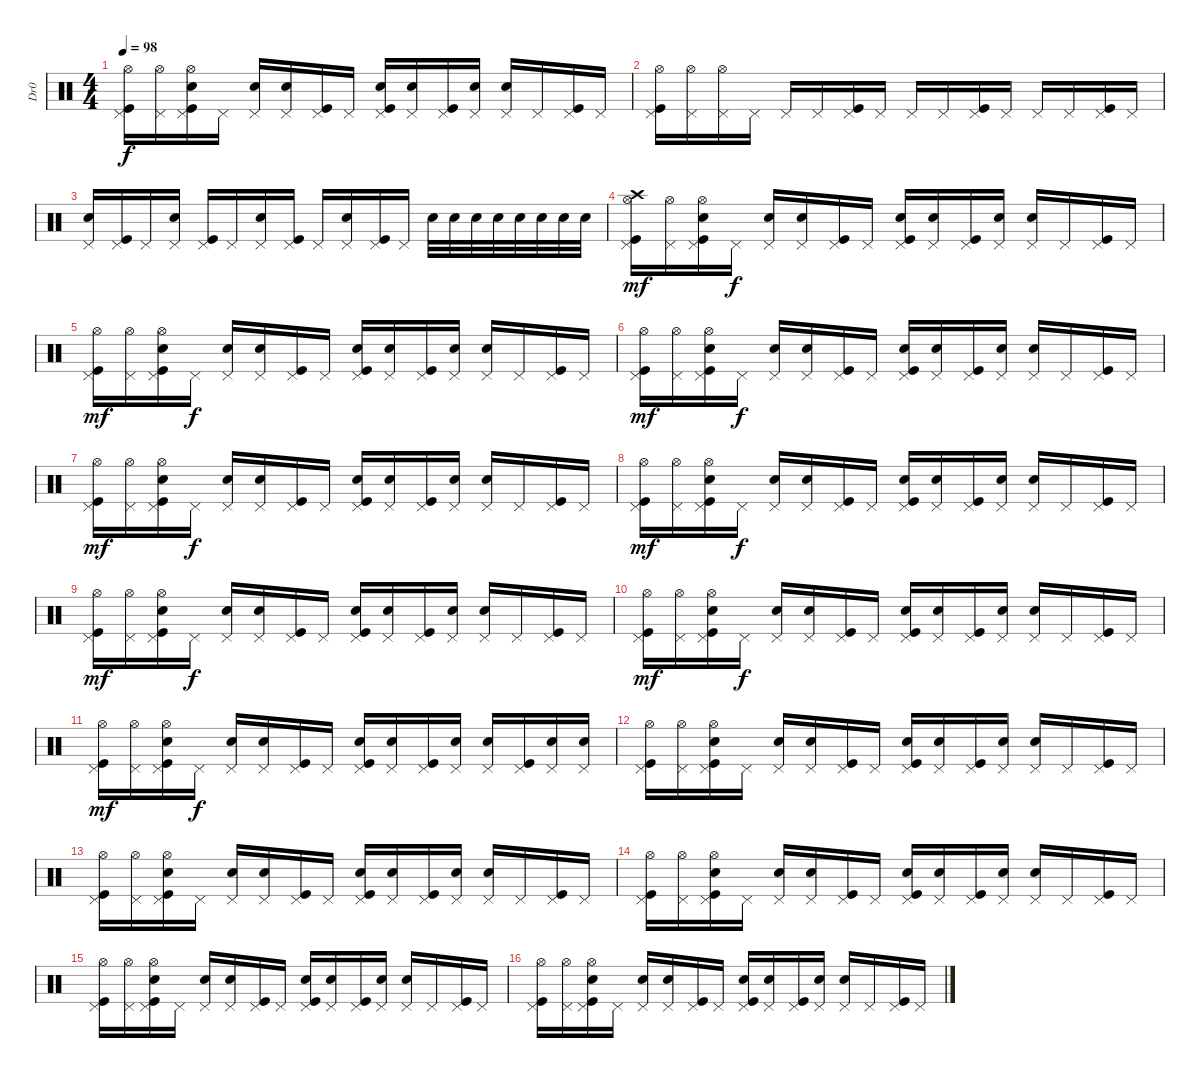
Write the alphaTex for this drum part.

\track ("Dr0" "Dr0") {instrument percussion}
\staff {score}
\articulation defaults
\ts (4 4)
\tempo 98
\clef neutral
\ks c
("Kick (hit)" "Pedal Hi-Hat (hit)" "Hi-Hat (open)").16{dy f} ("Pedal Hi-Hat (hit)" "Hi-Hat (open)").16 ("Kick (hit)" "Pedal Hi-Hat (hit)" "Hand Clap (hit)" "Hi-Hat (open)").16 "Pedal Hi-Hat (hit)".16 ("Pedal Hi-Hat (hit)" "Snare (hit) 2").16 ("Pedal Hi-Hat (hit)" "Hand Clap (hit)").16 ("Kick (hit)" "Pedal Hi-Hat (hit)").16 "Pedal Hi-Hat (hit)".16 ("Kick (hit)" "Pedal Hi-Hat (hit)" "Hand Clap (hit)").16 ("Pedal Hi-Hat (hit)" "Snare (hit) 2").16 ("Kick (hit)" "Pedal Hi-Hat (hit)").16 ("Pedal Hi-Hat (hit)" "Hand Clap (hit)").16 ("Pedal Hi-Hat (hit)" "Snare (hit) 2").16 "Pedal Hi-Hat (hit)".16 ("Kick (hit)" "Pedal Hi-Hat (hit)").16 "Pedal Hi-Hat (hit)".16 |
("Kick (hit)" "Pedal Hi-Hat (hit)" "Hi-Hat (open)").16 ("Pedal Hi-Hat (hit)" "Hi-Hat (open)").16 ("Pedal Hi-Hat (hit)" "Hi-Hat (open)").16 "Pedal Hi-Hat (hit)".16 "Pedal Hi-Hat (hit)".16 "Pedal Hi-Hat (hit)".16 ("Kick (hit)" "Pedal Hi-Hat (hit)").16 "Pedal Hi-Hat (hit)".16 "Pedal Hi-Hat (hit)".16 "Pedal Hi-Hat (hit)".16 ("Kick (hit)" "Pedal Hi-Hat (hit)").16 "Pedal Hi-Hat (hit)".16 "Pedal Hi-Hat (hit)".16 "Pedal Hi-Hat (hit)".16 ("Kick (hit)" "Pedal Hi-Hat (hit)").16 "Pedal Hi-Hat (hit)".16 |
("Pedal Hi-Hat (hit)" "Snare (hit) 2").16 ("Kick (hit)" "Pedal Hi-Hat (hit)").16 "Pedal Hi-Hat (hit)".16 ("Pedal Hi-Hat (hit)" "Snare (hit) 2").16 ("Kick (hit)" "Pedal Hi-Hat (hit)").16 "Pedal Hi-Hat (hit)".16 ("Pedal Hi-Hat (hit)" "Snare (hit) 2").16 ("Kick (hit)" "Pedal Hi-Hat (hit)").16 "Pedal Hi-Hat (hit)".16 ("Pedal Hi-Hat (hit)" "Snare (hit) 2").16 ("Kick (hit)" "Pedal Hi-Hat (hit)").16 "Pedal Hi-Hat (hit)".16 "Snare (hit) 2".32 "Snare (hit) 2".32 "Snare (hit) 2".32 "Snare (hit) 2".32 "Snare (hit) 2".32 "Snare (hit) 2".32 "Snare (hit) 2".32 "Snare (hit) 2".32 |
("Kick (hit)" "Pedal Hi-Hat (hit)" "Crash high (hit)" "Hi-Hat (open)").16{dy mf} ("Pedal Hi-Hat (hit)" "Hi-Hat (open)").16 ("Kick (hit)" "Pedal Hi-Hat (hit)" "Hand Clap (hit)" "Hi-Hat (open)").16 "Pedal Hi-Hat (hit)".16{dy f} ("Pedal Hi-Hat (hit)" "Snare (hit) 2").16 ("Pedal Hi-Hat (hit)" "Hand Clap (hit)").16 ("Kick (hit)" "Pedal Hi-Hat (hit)").16 "Pedal Hi-Hat (hit)".16 ("Kick (hit)" "Pedal Hi-Hat (hit)" "Hand Clap (hit)").16 ("Pedal Hi-Hat (hit)" "Snare (hit) 2").16 ("Kick (hit)" "Pedal Hi-Hat (hit)").16 ("Pedal Hi-Hat (hit)" "Hand Clap (hit)").16 ("Pedal Hi-Hat (hit)" "Snare (hit) 2").16 "Pedal Hi-Hat (hit)".16 ("Kick (hit)" "Pedal Hi-Hat (hit)").16 "Pedal Hi-Hat (hit)".16 |
("Kick (hit)" "Pedal Hi-Hat (hit)" "Hi-Hat (open)").16{dy mf} ("Pedal Hi-Hat (hit)" "Hi-Hat (open)").16 ("Kick (hit)" "Pedal Hi-Hat (hit)" "Hand Clap (hit)" "Hi-Hat (open)").16 "Pedal Hi-Hat (hit)".16{dy f} ("Pedal Hi-Hat (hit)" "Snare (hit) 2").16 ("Pedal Hi-Hat (hit)" "Hand Clap (hit)").16 ("Kick (hit)" "Pedal Hi-Hat (hit)").16 "Pedal Hi-Hat (hit)".16 ("Kick (hit)" "Pedal Hi-Hat (hit)" "Hand Clap (hit)").16 ("Pedal Hi-Hat (hit)" "Snare (hit) 2").16 ("Kick (hit)" "Pedal Hi-Hat (hit)").16 ("Pedal Hi-Hat (hit)" "Hand Clap (hit)").16 ("Pedal Hi-Hat (hit)" "Snare (hit) 2").16 "Pedal Hi-Hat (hit)".16 ("Kick (hit)" "Pedal Hi-Hat (hit)").16 "Pedal Hi-Hat (hit)".16 |
("Kick (hit)" "Pedal Hi-Hat (hit)" "Hi-Hat (open)").16{dy mf} ("Pedal Hi-Hat (hit)" "Hi-Hat (open)").16 ("Kick (hit)" "Pedal Hi-Hat (hit)" "Hand Clap (hit)" "Hi-Hat (open)").16 "Pedal Hi-Hat (hit)".16{dy f} ("Pedal Hi-Hat (hit)" "Snare (hit) 2").16 ("Pedal Hi-Hat (hit)" "Hand Clap (hit)").16 ("Kick (hit)" "Pedal Hi-Hat (hit)").16 "Pedal Hi-Hat (hit)".16 ("Kick (hit)" "Pedal Hi-Hat (hit)" "Hand Clap (hit)").16 ("Pedal Hi-Hat (hit)" "Snare (hit) 2").16 ("Kick (hit)" "Pedal Hi-Hat (hit)").16 ("Pedal Hi-Hat (hit)" "Hand Clap (hit)").16 ("Pedal Hi-Hat (hit)" "Snare (hit) 2").16 "Pedal Hi-Hat (hit)".16 ("Kick (hit)" "Pedal Hi-Hat (hit)").16 "Pedal Hi-Hat (hit)".16 |
("Kick (hit)" "Pedal Hi-Hat (hit)" "Hi-Hat (open)").16{dy mf} ("Pedal Hi-Hat (hit)" "Hi-Hat (open)").16 ("Kick (hit)" "Pedal Hi-Hat (hit)" "Hand Clap (hit)" "Hi-Hat (open)").16 "Pedal Hi-Hat (hit)".16{dy f} ("Pedal Hi-Hat (hit)" "Snare (hit) 2").16 ("Pedal Hi-Hat (hit)" "Hand Clap (hit)").16 ("Kick (hit)" "Pedal Hi-Hat (hit)").16 "Pedal Hi-Hat (hit)".16 ("Kick (hit)" "Pedal Hi-Hat (hit)" "Hand Clap (hit)").16 ("Pedal Hi-Hat (hit)" "Snare (hit) 2").16 ("Kick (hit)" "Pedal Hi-Hat (hit)").16 ("Pedal Hi-Hat (hit)" "Hand Clap (hit)").16 ("Pedal Hi-Hat (hit)" "Snare (hit) 2").16 "Pedal Hi-Hat (hit)".16 ("Kick (hit)" "Pedal Hi-Hat (hit)").16 "Pedal Hi-Hat (hit)".16 |
("Kick (hit)" "Pedal Hi-Hat (hit)" "Hi-Hat (open)").16{dy mf} ("Pedal Hi-Hat (hit)" "Hi-Hat (open)").16 ("Kick (hit)" "Pedal Hi-Hat (hit)" "Hand Clap (hit)" "Hi-Hat (open)").16 "Pedal Hi-Hat (hit)".16{dy f} ("Pedal Hi-Hat (hit)" "Snare (hit) 2").16 ("Pedal Hi-Hat (hit)" "Hand Clap (hit)").16 ("Kick (hit)" "Pedal Hi-Hat (hit)").16 "Pedal Hi-Hat (hit)".16 ("Kick (hit)" "Pedal Hi-Hat (hit)" "Hand Clap (hit)").16 ("Pedal Hi-Hat (hit)" "Snare (hit) 2").16 ("Kick (hit)" "Pedal Hi-Hat (hit)").16 ("Pedal Hi-Hat (hit)" "Hand Clap (hit)").16 ("Pedal Hi-Hat (hit)" "Snare (hit) 2").16 "Pedal Hi-Hat (hit)".16 ("Kick (hit)" "Pedal Hi-Hat (hit)").16 "Pedal Hi-Hat (hit)".16 |
("Kick (hit)" "Pedal Hi-Hat (hit)" "Hi-Hat (open)").16{dy mf} ("Pedal Hi-Hat (hit)" "Hi-Hat (open)").16 ("Kick (hit)" "Pedal Hi-Hat (hit)" "Hand Clap (hit)" "Hi-Hat (open)").16 "Pedal Hi-Hat (hit)".16{dy f} ("Pedal Hi-Hat (hit)" "Snare (hit) 2").16 ("Pedal Hi-Hat (hit)" "Hand Clap (hit)").16 ("Kick (hit)" "Pedal Hi-Hat (hit)").16 "Pedal Hi-Hat (hit)".16 ("Kick (hit)" "Pedal Hi-Hat (hit)" "Hand Clap (hit)").16 ("Pedal Hi-Hat (hit)" "Snare (hit) 2").16 ("Kick (hit)" "Pedal Hi-Hat (hit)").16 ("Pedal Hi-Hat (hit)" "Hand Clap (hit)").16 ("Pedal Hi-Hat (hit)" "Snare (hit) 2").16 "Pedal Hi-Hat (hit)".16 ("Kick (hit)" "Pedal Hi-Hat (hit)").16 "Pedal Hi-Hat (hit)".16 |
("Kick (hit)" "Pedal Hi-Hat (hit)" "Hi-Hat (open)").16{dy mf} ("Pedal Hi-Hat (hit)" "Hi-Hat (open)").16 ("Kick (hit)" "Pedal Hi-Hat (hit)" "Hand Clap (hit)" "Hi-Hat (open)").16 "Pedal Hi-Hat (hit)".16{dy f} ("Pedal Hi-Hat (hit)" "Snare (hit) 2").16 ("Pedal Hi-Hat (hit)" "Hand Clap (hit)").16 ("Kick (hit)" "Pedal Hi-Hat (hit)").16 "Pedal Hi-Hat (hit)".16 ("Kick (hit)" "Pedal Hi-Hat (hit)" "Hand Clap (hit)").16 ("Pedal Hi-Hat (hit)" "Snare (hit) 2").16 ("Kick (hit)" "Pedal Hi-Hat (hit)").16 ("Pedal Hi-Hat (hit)" "Hand Clap (hit)").16 ("Pedal Hi-Hat (hit)" "Snare (hit) 2").16 "Pedal Hi-Hat (hit)".16 ("Kick (hit)" "Pedal Hi-Hat (hit)").16 "Pedal Hi-Hat (hit)".16 |
("Kick (hit)" "Pedal Hi-Hat (hit)" "Hi-Hat (open)").16{dy mf} ("Pedal Hi-Hat (hit)" "Hi-Hat (open)").16 ("Kick (hit)" "Pedal Hi-Hat (hit)" "Hand Clap (hit)" "Hi-Hat (open)").16 "Pedal Hi-Hat (hit)".16{dy f} ("Pedal Hi-Hat (hit)" "Snare (hit) 2").16 ("Pedal Hi-Hat (hit)" "Hand Clap (hit)").16 ("Kick (hit)" "Pedal Hi-Hat (hit)").16 "Pedal Hi-Hat (hit)".16 ("Kick (hit)" "Pedal Hi-Hat (hit)" "Hand Clap (hit)").16 ("Pedal Hi-Hat (hit)" "Snare (hit) 2").16 ("Kick (hit)" "Pedal Hi-Hat (hit)").16 ("Pedal Hi-Hat (hit)" "Hand Clap (hit)").16 ("Pedal Hi-Hat (hit)" "Snare (hit) 2").16 ("Kick (hit)" "Pedal Hi-Hat (hit)").16 ("Pedal Hi-Hat (hit)" "Snare (hit) 2").16 ("Pedal Hi-Hat (hit)" "Snare (hit) 2").16 |
("Kick (hit)" "Pedal Hi-Hat (hit)" "Hi-Hat (open)").16 ("Pedal Hi-Hat (hit)" "Hi-Hat (open)").16 ("Kick (hit)" "Pedal Hi-Hat (hit)" "Hand Clap (hit)" "Hi-Hat (open)").16 "Pedal Hi-Hat (hit)".16 ("Pedal Hi-Hat (hit)" "Snare (hit) 2").16 ("Pedal Hi-Hat (hit)" "Hand Clap (hit)").16 ("Kick (hit)" "Pedal Hi-Hat (hit)").16 "Pedal Hi-Hat (hit)".16 ("Kick (hit)" "Pedal Hi-Hat (hit)" "Hand Clap (hit)").16 ("Pedal Hi-Hat (hit)" "Snare (hit) 2").16 ("Kick (hit)" "Pedal Hi-Hat (hit)").16 ("Pedal Hi-Hat (hit)" "Hand Clap (hit)").16 ("Pedal Hi-Hat (hit)" "Snare (hit) 2").16 "Pedal Hi-Hat (hit)".16 ("Kick (hit)" "Pedal Hi-Hat (hit)").16 "Pedal Hi-Hat (hit)".16 |
("Kick (hit)" "Pedal Hi-Hat (hit)" "Hi-Hat (open)").16 ("Pedal Hi-Hat (hit)" "Hi-Hat (open)").16 ("Kick (hit)" "Pedal Hi-Hat (hit)" "Hand Clap (hit)" "Hi-Hat (open)").16 "Pedal Hi-Hat (hit)".16 ("Pedal Hi-Hat (hit)" "Snare (hit) 2").16 ("Pedal Hi-Hat (hit)" "Hand Clap (hit)").16 ("Kick (hit)" "Pedal Hi-Hat (hit)").16 "Pedal Hi-Hat (hit)".16 ("Kick (hit)" "Pedal Hi-Hat (hit)" "Hand Clap (hit)").16 ("Pedal Hi-Hat (hit)" "Snare (hit) 2").16 ("Kick (hit)" "Pedal Hi-Hat (hit)").16 ("Pedal Hi-Hat (hit)" "Hand Clap (hit)").16 ("Pedal Hi-Hat (hit)" "Snare (hit) 2").16 "Pedal Hi-Hat (hit)".16 ("Kick (hit)" "Pedal Hi-Hat (hit)").16 "Pedal Hi-Hat (hit)".16 |
("Kick (hit)" "Pedal Hi-Hat (hit)" "Hi-Hat (open)").16 ("Pedal Hi-Hat (hit)" "Hi-Hat (open)").16 ("Kick (hit)" "Pedal Hi-Hat (hit)" "Hand Clap (hit)" "Hi-Hat (open)").16 "Pedal Hi-Hat (hit)".16 ("Pedal Hi-Hat (hit)" "Snare (hit) 2").16 ("Pedal Hi-Hat (hit)" "Hand Clap (hit)").16 ("Kick (hit)" "Pedal Hi-Hat (hit)").16 "Pedal Hi-Hat (hit)".16 ("Kick (hit)" "Pedal Hi-Hat (hit)" "Hand Clap (hit)").16 ("Pedal Hi-Hat (hit)" "Snare (hit) 2").16 ("Kick (hit)" "Pedal Hi-Hat (hit)").16 ("Pedal Hi-Hat (hit)" "Hand Clap (hit)").16 ("Pedal Hi-Hat (hit)" "Snare (hit) 2").16 "Pedal Hi-Hat (hit)".16 ("Kick (hit)" "Pedal Hi-Hat (hit)").16 "Pedal Hi-Hat (hit)".16 |
("Kick (hit)" "Pedal Hi-Hat (hit)" "Hi-Hat (open)").16 ("Pedal Hi-Hat (hit)" "Hi-Hat (open)").16 ("Kick (hit)" "Pedal Hi-Hat (hit)" "Hand Clap (hit)" "Hi-Hat (open)").16 "Pedal Hi-Hat (hit)".16 ("Pedal Hi-Hat (hit)" "Snare (hit) 2").16 ("Pedal Hi-Hat (hit)" "Hand Clap (hit)").16 ("Kick (hit)" "Pedal Hi-Hat (hit)").16 "Pedal Hi-Hat (hit)".16 ("Kick (hit)" "Pedal Hi-Hat (hit)" "Hand Clap (hit)").16 ("Pedal Hi-Hat (hit)" "Snare (hit) 2").16 ("Kick (hit)" "Pedal Hi-Hat (hit)").16 ("Pedal Hi-Hat (hit)" "Hand Clap (hit)").16 ("Pedal Hi-Hat (hit)" "Snare (hit) 2").16 "Pedal Hi-Hat (hit)".16 ("Kick (hit)" "Pedal Hi-Hat (hit)").16 "Pedal Hi-Hat (hit)".16 |
("Kick (hit)" "Pedal Hi-Hat (hit)" "Hi-Hat (open)").16 ("Pedal Hi-Hat (hit)" "Hi-Hat (open)").16 ("Kick (hit)" "Pedal Hi-Hat (hit)" "Hand Clap (hit)" "Hi-Hat (open)").16 "Pedal Hi-Hat (hit)".16 ("Pedal Hi-Hat (hit)" "Snare (hit) 2").16 ("Pedal Hi-Hat (hit)" "Hand Clap (hit)").16 ("Kick (hit)" "Pedal Hi-Hat (hit)").16 "Pedal Hi-Hat (hit)".16 ("Kick (hit)" "Pedal Hi-Hat (hit)" "Hand Clap (hit)").16 ("Pedal Hi-Hat (hit)" "Snare (hit) 2").16 ("Kick (hit)" "Pedal Hi-Hat (hit)").16 ("Pedal Hi-Hat (hit)" "Hand Clap (hit)").16 ("Pedal Hi-Hat (hit)" "Snare (hit) 2").16 "Pedal Hi-Hat (hit)".16 ("Kick (hit)" "Pedal Hi-Hat (hit)").16 "Pedal Hi-Hat (hit)".16
